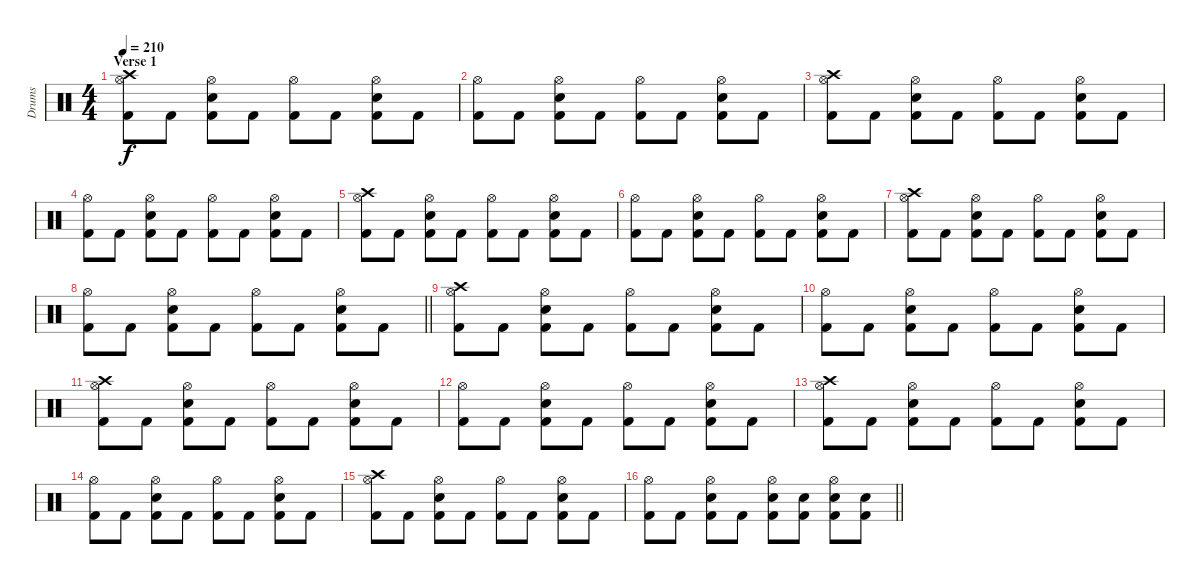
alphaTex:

\track ("Drums" "Drums") {instrument percussion}
\staff {score}
\articulation defaults
\ts (4 4)
\section ("" "Verse 1")
\tempo 210
\clef neutral
\ks c
("Crash high (hit)" "Hi-Hat (open)" "Kick (hit) 2").8{dy f} "Kick (hit) 2".8 ("Hi-Hat (open)" "Snare (hit) 2" "Kick (hit) 2").8 "Kick (hit) 2".8 ("Hi-Hat (open)" "Kick (hit) 2").8 "Kick (hit) 2".8 ("Hi-Hat (open)" "Snare (hit) 2" "Kick (hit) 2").8 "Kick (hit) 2".8 |
("Hi-Hat (open)" "Kick (hit) 2").8 "Kick (hit) 2".8 ("Hi-Hat (open)" "Snare (hit) 2" "Kick (hit) 2").8 "Kick (hit) 2".8 ("Hi-Hat (open)" "Kick (hit) 2").8 "Kick (hit) 2".8 ("Hi-Hat (open)" "Snare (hit) 2" "Kick (hit) 2").8 "Kick (hit) 2".8 |
("Crash high (hit)" "Hi-Hat (open)" "Kick (hit) 2").8 "Kick (hit) 2".8 ("Hi-Hat (open)" "Snare (hit) 2" "Kick (hit) 2").8 "Kick (hit) 2".8 ("Hi-Hat (open)" "Kick (hit) 2").8 "Kick (hit) 2".8 ("Hi-Hat (open)" "Snare (hit) 2" "Kick (hit) 2").8 "Kick (hit) 2".8 |
("Hi-Hat (open)" "Kick (hit) 2").8 "Kick (hit) 2".8 ("Hi-Hat (open)" "Snare (hit) 2" "Kick (hit) 2").8 "Kick (hit) 2".8 ("Hi-Hat (open)" "Kick (hit) 2").8 "Kick (hit) 2".8 ("Hi-Hat (open)" "Snare (hit) 2" "Kick (hit) 2").8 "Kick (hit) 2".8 |
("Crash high (hit)" "Hi-Hat (open)" "Kick (hit) 2").8 "Kick (hit) 2".8 ("Hi-Hat (open)" "Snare (hit) 2" "Kick (hit) 2").8 "Kick (hit) 2".8 ("Hi-Hat (open)" "Kick (hit) 2").8 "Kick (hit) 2".8 ("Hi-Hat (open)" "Snare (hit) 2" "Kick (hit) 2").8 "Kick (hit) 2".8 |
("Hi-Hat (open)" "Kick (hit) 2").8 "Kick (hit) 2".8 ("Hi-Hat (open)" "Snare (hit) 2" "Kick (hit) 2").8 "Kick (hit) 2".8 ("Hi-Hat (open)" "Kick (hit) 2").8 "Kick (hit) 2".8 ("Hi-Hat (open)" "Snare (hit) 2" "Kick (hit) 2").8 "Kick (hit) 2".8 |
("Crash high (hit)" "Hi-Hat (open)" "Kick (hit) 2").8 "Kick (hit) 2".8 ("Hi-Hat (open)" "Snare (hit) 2" "Kick (hit) 2").8 "Kick (hit) 2".8 ("Hi-Hat (open)" "Kick (hit) 2").8 "Kick (hit) 2".8 ("Hi-Hat (open)" "Snare (hit) 2" "Kick (hit) 2").8 "Kick (hit) 2".8 |
\barLineRight lightlight
("Hi-Hat (open)" "Kick (hit) 2").8 "Kick (hit) 2".8 ("Hi-Hat (open)" "Snare (hit) 2" "Kick (hit) 2").8 "Kick (hit) 2".8 ("Hi-Hat (open)" "Kick (hit) 2").8 "Kick (hit) 2".8 ("Hi-Hat (open)" "Snare (hit) 2" "Kick (hit) 2").8 "Kick (hit) 2".8 |
("Crash high (hit)" "Hi-Hat (open)" "Kick (hit) 2").8 "Kick (hit) 2".8 ("Hi-Hat (open)" "Snare (hit) 2" "Kick (hit) 2").8 "Kick (hit) 2".8 ("Hi-Hat (open)" "Kick (hit) 2").8 "Kick (hit) 2".8 ("Hi-Hat (open)" "Snare (hit) 2" "Kick (hit) 2").8 "Kick (hit) 2".8 |
("Hi-Hat (open)" "Kick (hit) 2").8 "Kick (hit) 2".8 ("Hi-Hat (open)" "Snare (hit) 2" "Kick (hit) 2").8 "Kick (hit) 2".8 ("Hi-Hat (open)" "Kick (hit) 2").8 "Kick (hit) 2".8 ("Hi-Hat (open)" "Snare (hit) 2" "Kick (hit) 2").8 "Kick (hit) 2".8 |
("Crash high (hit)" "Hi-Hat (open)" "Kick (hit) 2").8 "Kick (hit) 2".8 ("Hi-Hat (open)" "Snare (hit) 2" "Kick (hit) 2").8 "Kick (hit) 2".8 ("Hi-Hat (open)" "Kick (hit) 2").8 "Kick (hit) 2".8 ("Hi-Hat (open)" "Snare (hit) 2" "Kick (hit) 2").8 "Kick (hit) 2".8 |
("Hi-Hat (open)" "Kick (hit) 2").8 "Kick (hit) 2".8 ("Hi-Hat (open)" "Snare (hit) 2" "Kick (hit) 2").8 "Kick (hit) 2".8 ("Hi-Hat (open)" "Kick (hit) 2").8 "Kick (hit) 2".8 ("Hi-Hat (open)" "Snare (hit) 2" "Kick (hit) 2").8 "Kick (hit) 2".8 |
("Crash high (hit)" "Hi-Hat (open)" "Kick (hit) 2").8 "Kick (hit) 2".8 ("Hi-Hat (open)" "Snare (hit) 2" "Kick (hit) 2").8 "Kick (hit) 2".8 ("Hi-Hat (open)" "Kick (hit) 2").8 "Kick (hit) 2".8 ("Hi-Hat (open)" "Snare (hit) 2" "Kick (hit) 2").8 "Kick (hit) 2".8 |
("Hi-Hat (open)" "Kick (hit) 2").8 "Kick (hit) 2".8 ("Hi-Hat (open)" "Snare (hit) 2" "Kick (hit) 2").8 "Kick (hit) 2".8 ("Hi-Hat (open)" "Kick (hit) 2").8 "Kick (hit) 2".8 ("Hi-Hat (open)" "Snare (hit) 2" "Kick (hit) 2").8 "Kick (hit) 2".8 |
("Crash high (hit)" "Hi-Hat (open)" "Kick (hit) 2").8 "Kick (hit) 2".8 ("Hi-Hat (open)" "Snare (hit) 2" "Kick (hit) 2").8 "Kick (hit) 2".8 ("Hi-Hat (open)" "Kick (hit) 2").8 "Kick (hit) 2".8 ("Hi-Hat (open)" "Snare (hit) 2" "Kick (hit) 2").8 "Kick (hit) 2".8 |
\barLineRight lightlight
("Hi-Hat (open)" "Kick (hit) 2").8 "Kick (hit) 2".8 ("Hi-Hat (open)" "Snare (hit) 2" "Kick (hit) 2").8 "Kick (hit) 2".8 ("Hi-Hat (open)" "Snare (hit) 2" "Kick (hit) 2").8 ("Snare (hit) 2" "Kick (hit) 2").8 ("Hi-Hat (open)" "Snare (hit) 2" "Kick (hit) 2").8 ("Snare (hit) 2" "Kick (hit) 2").8
